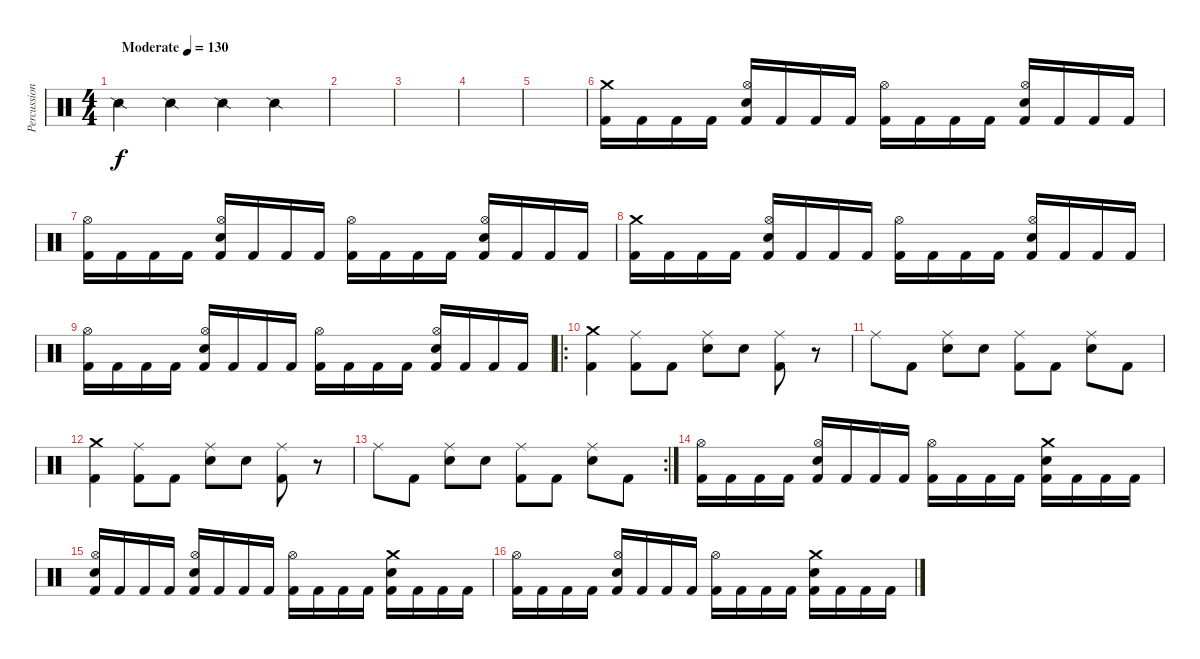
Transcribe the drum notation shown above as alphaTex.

\track ("Percussion" "Percussion") {instrument percussion}
\staff {score}
\articulation defaults
\ts (4 4)
\tempo (130 "Moderate")
\clef neutral
\ks c "Snare (side stick) 2".4{dy f} "Snare (side stick) 2".4 "Snare (side stick) 2".4 "Snare (side stick) 2".4
|
|
|
|
|
("Crash medium (hit)" "Kick (hit) 2").16 "Kick (hit) 2".16 "Kick (hit) 2".16 "Kick (hit) 2".16 ("Hi-Hat (open)" "Electric Snare (hit)" "Kick (hit) 2").16 "Kick (hit) 2".16 "Kick (hit) 2".16 "Kick (hit) 2".16 ("Hi-Hat (open)" "Kick (hit) 2").16 "Kick (hit) 2".16 "Kick (hit) 2".16 "Kick (hit) 2".16 ("Hi-Hat (open)" "Electric Snare (hit)" "Kick (hit) 2").16 "Kick (hit) 2".16 "Kick (hit) 2".16 "Kick (hit) 2".16 |
("Hi-Hat (open)" "Kick (hit) 2").16 "Kick (hit) 2".16 "Kick (hit) 2".16 "Kick (hit) 2".16 ("Hi-Hat (open)" "Electric Snare (hit)" "Kick (hit) 2").16 "Kick (hit) 2".16 "Kick (hit) 2".16 "Kick (hit) 2".16 ("Hi-Hat (open)" "Kick (hit) 2").16 "Kick (hit) 2".16 "Kick (hit) 2".16 "Kick (hit) 2".16 ("Hi-Hat (open)" "Electric Snare (hit)" "Kick (hit) 2").16 "Kick (hit) 2".16 "Kick (hit) 2".16 "Kick (hit) 2".16 |
("Crash medium (hit)" "Kick (hit) 2").16 "Kick (hit) 2".16 "Kick (hit) 2".16 "Kick (hit) 2".16 ("Hi-Hat (open)" "Electric Snare (hit)" "Kick (hit) 2").16 "Kick (hit) 2".16 "Kick (hit) 2".16 "Kick (hit) 2".16 ("Hi-Hat (open)" "Kick (hit) 2").16 "Kick (hit) 2".16 "Kick (hit) 2".16 "Kick (hit) 2".16 ("Hi-Hat (open)" "Electric Snare (hit)" "Kick (hit) 2").16 "Kick (hit) 2".16 "Kick (hit) 2".16 "Kick (hit) 2".16 |
("Hi-Hat (open)" "Kick (hit) 2").16 "Kick (hit) 2".16 "Kick (hit) 2".16 "Kick (hit) 2".16 ("Hi-Hat (open)" "Electric Snare (hit)" "Kick (hit) 2").16 "Kick (hit) 2".16 "Kick (hit) 2".16 "Kick (hit) 2".16 ("Hi-Hat (open)" "Kick (hit) 2").16 "Kick (hit) 2".16 "Kick (hit) 2".16 "Kick (hit) 2".16 ("Hi-Hat (open)" "Electric Snare (hit)" "Kick (hit) 2").16 "Kick (hit) 2".16 "Kick (hit) 2".16 "Kick (hit) 2".16 |
\ro
("Crash medium (hit)" "Kick (hit) 2").4 ("Ride (middle)" "Kick (hit) 2").8 "Kick (hit) 2".8 ("Ride (middle)" "Electric Snare (hit)").8 "Electric Snare (hit)".8 ("Ride (middle)" "Kick (hit) 2").8 r.8 |
"Ride (middle)".8 "Kick (hit) 2".8 ("Ride (middle)" "Electric Snare (hit)").8 "Electric Snare (hit)".8 ("Ride (middle)" "Kick (hit) 2").8 "Kick (hit) 2".8 ("Ride (middle)" "Electric Snare (hit)").8 "Kick (hit) 2".8 |
("Crash medium (hit)" "Kick (hit) 2").4 ("Ride (middle)" "Kick (hit) 2").8 "Kick (hit) 2".8 ("Ride (middle)" "Electric Snare (hit)").8 "Electric Snare (hit)".8 ("Ride (middle)" "Kick (hit) 2").8 r.8 |
\rc 2 "Ride (middle)".8 "Kick (hit) 2".8
("Ride (middle)" "Electric Snare (hit)").8 "Electric Snare (hit)".8 ("Ride (middle)" "Kick (hit) 2").8 "Kick (hit) 2".8 ("Ride (middle)" "Electric Snare (hit)").8 "Kick (hit) 2".8 |
("Hi-Hat (open)" "Kick (hit) 2").16 "Kick (hit) 2".16 "Kick (hit) 2".16 "Kick (hit) 2".16 ("Hi-Hat (open)" "Electric Snare (hit)" "Kick (hit) 2").16 "Kick (hit) 2".16 "Kick (hit) 2".16 "Kick (hit) 2".16 ("Hi-Hat (open)" "Kick (hit) 2").16 "Kick (hit) 2".16 "Kick (hit) 2".16 "Kick (hit) 2".16 ("Crash medium (hit)" "Electric Snare (hit)" "Kick (hit) 2").16 "Kick (hit) 2".16 "Kick (hit) 2".16 "Kick (hit) 2".16 |
("Hi-Hat (open)" "Electric Snare (hit)" "Kick (hit) 2").16 "Kick (hit) 2".16 "Kick (hit) 2".16 "Kick (hit) 2".16 ("Hi-Hat (open)" "Electric Snare (hit)" "Kick (hit) 2").16 "Kick (hit) 2".16 "Kick (hit) 2".16 "Kick (hit) 2".16 ("Hi-Hat (open)" "Kick (hit) 2").16 "Kick (hit) 2".16 "Kick (hit) 2".16 "Kick (hit) 2".16 ("Crash medium (hit)" "Electric Snare (hit)" "Kick (hit) 2").16 "Kick (hit) 2".16 "Kick (hit) 2".16 "Kick (hit) 2".16 |
("Hi-Hat (open)" "Kick (hit) 2").16 "Kick (hit) 2".16 "Kick (hit) 2".16 "Kick (hit) 2".16 ("Hi-Hat (open)" "Electric Snare (hit)" "Kick (hit) 2").16 "Kick (hit) 2".16 "Kick (hit) 2".16 "Kick (hit) 2".16 ("Hi-Hat (open)" "Kick (hit) 2").16 "Kick (hit) 2".16 "Kick (hit) 2".16 "Kick (hit) 2".16 ("Crash medium (hit)" "Electric Snare (hit)" "Kick (hit) 2").16 "Kick (hit) 2".16 "Kick (hit) 2".16 "Kick (hit) 2".16
